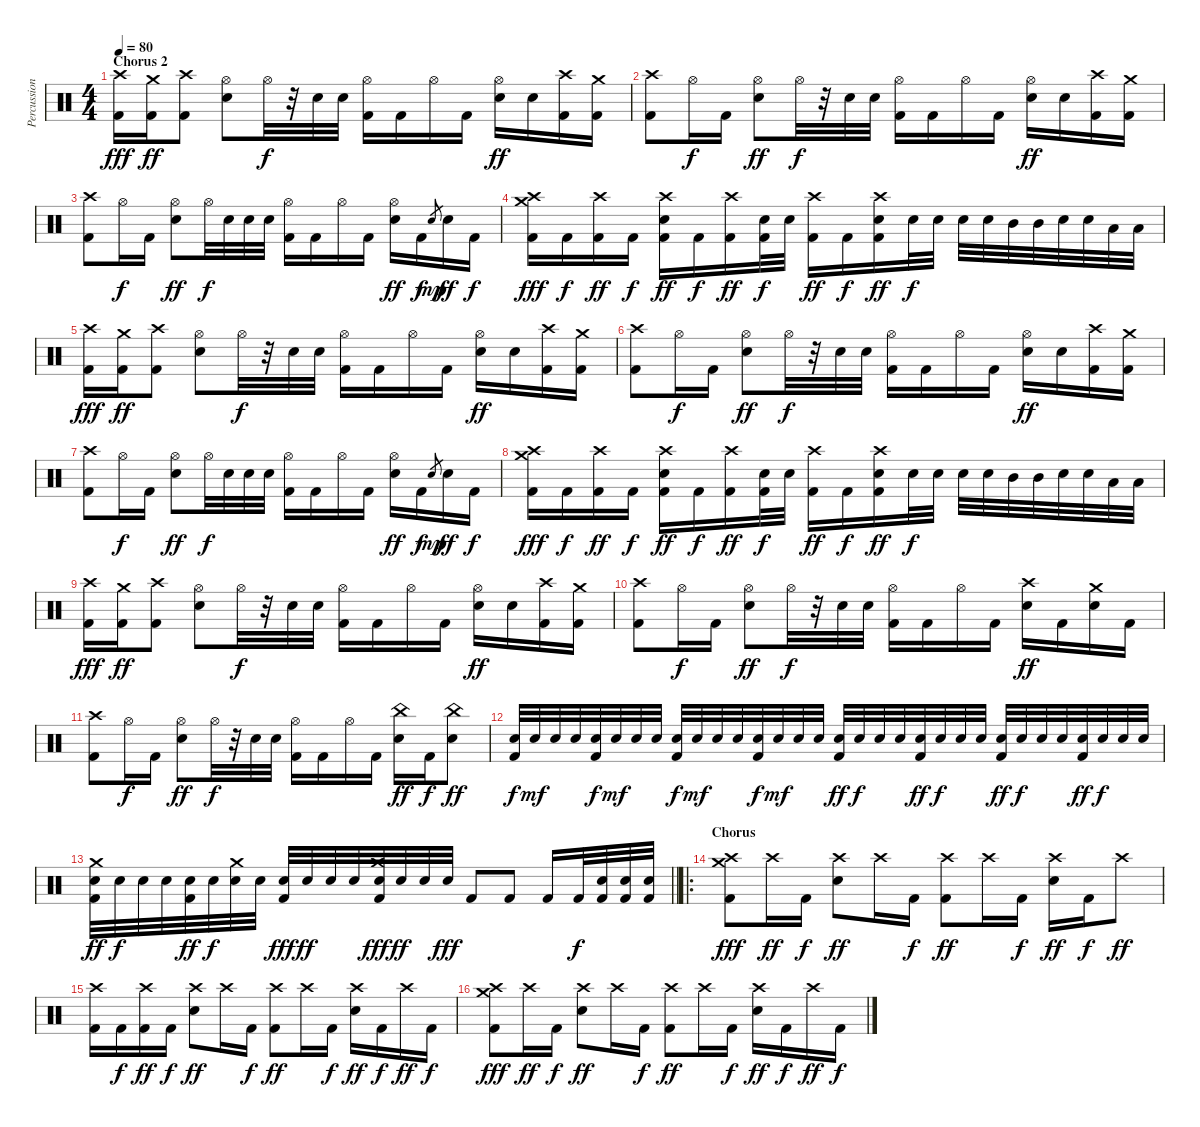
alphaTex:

\track ("Percussion" "Percussion") {instrument percussion}
\staff {score}
\articulation defaults
\ts (4 4)
\section ("" "Chorus 2")
\tempo 80
\clef neutral
\ks c
("Crash high (hit)" "Kick (hit) 2").16{dy fff} ("Crash medium (hit)" "Kick (hit) 2").16{dy ff} ("Crash high (hit)" "Kick (hit) 2").8 ("Hi-Hat (open)" "Electric Snare (hit)").8 "Hi-Hat (open)".32{dy f} r.32 "Electric Snare (hit)".32 "Electric Snare (hit)".32 ("Hi-Hat (open)" "Kick (hit) 2").16 "Kick (hit) 2".16 "Hi-Hat (open)".16 "Kick (hit) 2".16 ("Hi-Hat (open)" "Electric Snare (hit)").16{dy ff} "Electric Snare (hit)".16 ("Crash high (hit)" "Kick (hit) 2").16 ("Crash medium (hit)" "Kick (hit) 2").16 |
("Crash high (hit)" "Kick (hit) 2").8 "Hi-Hat (open)".16{dy f} "Kick (hit) 2".16 ("Hi-Hat (open)" "Electric Snare (hit)").8{dy ff} "Hi-Hat (open)".32{dy f} r.32 "Electric Snare (hit)".32 "Electric Snare (hit)".32 ("Hi-Hat (open)" "Kick (hit) 2").16 "Kick (hit) 2".16 "Hi-Hat (open)".16 "Kick (hit) 2".16 ("Hi-Hat (open)" "Electric Snare (hit)").16{dy ff} "Electric Snare (hit)".16 ("Crash high (hit)" "Kick (hit) 2").16 ("Crash medium (hit)" "Kick (hit) 2").16 |
("Crash high (hit)" "Kick (hit) 2").8 "Hi-Hat (open)".16{dy f} "Kick (hit) 2".16 ("Hi-Hat (open)" "Electric Snare (hit)").8{dy ff} "Hi-Hat (open)".32{dy f} "Electric Snare (hit)".32 "Electric Snare (hit)".32 "Electric Snare (hit)".32 ("Hi-Hat (open)" "Kick (hit) 2").16 "Kick (hit) 2".16 "Hi-Hat (open)".16 "Kick (hit) 2".16 ("Hi-Hat (open)" "Electric Snare (hit)").16{dy ff} "Kick (hit) 2".16{dy f} "Electric Snare (hit)".8{gr dy mp} "Electric Snare (hit)".16{dy ff} "Kick (hit) 2".16{dy f} |
("Crash high (hit)" "Crash medium (hit)" "Kick (hit) 2").16{dy fff} "Kick (hit) 2".16{dy f} ("Crash high (hit)" "Kick (hit) 2").16{dy ff} "Kick (hit) 2".16{dy f} ("Crash high (hit)" "Electric Snare (hit)" "Kick (hit) 2").16{dy ff} "Kick (hit) 2".16{dy f} ("Crash high (hit)" "Kick (hit) 2").16{dy ff} ("Electric Snare (hit)" "Kick (hit) 2").32{dy f} "Electric Snare (hit)".32 ("Crash high (hit)" "Kick (hit) 2").16{dy ff} "Kick (hit) 2".16{dy f} ("Crash high (hit)" "Electric Snare (hit)" "Kick (hit) 2").16{dy ff} "Electric Snare (hit)".32{dy f} "Electric Snare (hit)".32 "Electric Snare (hit)".32 "Electric Snare (hit)".32 "Mid Tom (hit)".32 "Mid Tom (hit)".32 "Electric Snare (hit)".32 "Electric Snare (hit)".32 "Low Tom (hit)".32 "Low Tom (hit)".32 |
("Crash high (hit)" "Kick (hit) 2").16{dy fff} ("Crash medium (hit)" "Kick (hit) 2").16{dy ff} ("Crash high (hit)" "Kick (hit) 2").8 ("Hi-Hat (open)" "Electric Snare (hit)").8 "Hi-Hat (open)".32{dy f} r.32 "Electric Snare (hit)".32 "Electric Snare (hit)".32 ("Hi-Hat (open)" "Kick (hit) 2").16 "Kick (hit) 2".16 "Hi-Hat (open)".16 "Kick (hit) 2".16 ("Hi-Hat (open)" "Electric Snare (hit)").16{dy ff} "Electric Snare (hit)".16 ("Crash high (hit)" "Kick (hit) 2").16 ("Crash medium (hit)" "Kick (hit) 2").16 |
("Crash high (hit)" "Kick (hit) 2").8 "Hi-Hat (open)".16{dy f} "Kick (hit) 2".16 ("Hi-Hat (open)" "Electric Snare (hit)").8{dy ff} "Hi-Hat (open)".32{dy f} r.32 "Electric Snare (hit)".32 "Electric Snare (hit)".32 ("Hi-Hat (open)" "Kick (hit) 2").16 "Kick (hit) 2".16 "Hi-Hat (open)".16 "Kick (hit) 2".16 ("Hi-Hat (open)" "Electric Snare (hit)").16{dy ff} "Electric Snare (hit)".16 ("Crash high (hit)" "Kick (hit) 2").16 ("Crash medium (hit)" "Kick (hit) 2").16 |
("Crash high (hit)" "Kick (hit) 2").8 "Hi-Hat (open)".16{dy f} "Kick (hit) 2".16 ("Hi-Hat (open)" "Electric Snare (hit)").8{dy ff} "Hi-Hat (open)".32{dy f} "Electric Snare (hit)".32 "Electric Snare (hit)".32 "Electric Snare (hit)".32 ("Hi-Hat (open)" "Kick (hit) 2").16 "Kick (hit) 2".16 "Hi-Hat (open)".16 "Kick (hit) 2".16 ("Hi-Hat (open)" "Electric Snare (hit)").16{dy ff} "Kick (hit) 2".16{dy f} "Electric Snare (hit)".8{gr dy mp} "Electric Snare (hit)".16{dy ff} "Kick (hit) 2".16{dy f} |
("Crash high (hit)" "Crash medium (hit)" "Kick (hit) 2").16{dy fff} "Kick (hit) 2".16{dy f} ("Crash high (hit)" "Kick (hit) 2").16{dy ff} "Kick (hit) 2".16{dy f} ("Crash high (hit)" "Electric Snare (hit)" "Kick (hit) 2").16{dy ff} "Kick (hit) 2".16{dy f} ("Crash high (hit)" "Kick (hit) 2").16{dy ff} ("Electric Snare (hit)" "Kick (hit) 2").32{dy f} "Electric Snare (hit)".32 ("Crash high (hit)" "Kick (hit) 2").16{dy ff} "Kick (hit) 2".16{dy f} ("Crash high (hit)" "Electric Snare (hit)" "Kick (hit) 2").16{dy ff} "Electric Snare (hit)".32{dy f} "Electric Snare (hit)".32 "Electric Snare (hit)".32 "Electric Snare (hit)".32 "Mid Tom (hit)".32 "Mid Tom (hit)".32 "Electric Snare (hit)".32 "Electric Snare (hit)".32 "Low Tom (hit)".32 "Low Tom (hit)".32 |
("Crash high (hit)" "Kick (hit) 2").16{dy fff} ("Crash medium (hit)" "Kick (hit) 2").16{dy ff} ("Crash high (hit)" "Kick (hit) 2").8 ("Hi-Hat (open)" "Electric Snare (hit)").8 "Hi-Hat (open)".32{dy f} r.32 "Electric Snare (hit)".32 "Electric Snare (hit)".32 ("Hi-Hat (open)" "Kick (hit) 2").16 "Kick (hit) 2".16 "Hi-Hat (open)".16 "Kick (hit) 2".16 ("Hi-Hat (open)" "Electric Snare (hit)").16{dy ff} "Electric Snare (hit)".16 ("Crash high (hit)" "Kick (hit) 2").16 ("Crash medium (hit)" "Kick (hit) 2").16 |
("Crash high (hit)" "Kick (hit) 2").8 "Hi-Hat (open)".16{dy f} "Kick (hit) 2".16 ("Hi-Hat (open)" "Electric Snare (hit)").8{dy ff} "Hi-Hat (open)".32{dy f} r.32 "Electric Snare (hit)".32 "Electric Snare (hit)".32 ("Hi-Hat (open)" "Kick (hit) 2").16 "Kick (hit) 2".16 "Hi-Hat (open)".16 "Kick (hit) 2".16 ("Crash high (hit)" "Electric Snare (hit)").16{dy ff} "Kick (hit) 2".16 ("Crash medium (hit)" "Electric Snare (hit)").16 "Kick (hit) 2".16 |
("Crash high (hit)" "Kick (hit) 2").8 "Hi-Hat (open)".16{dy f} "Kick (hit) 2".16 ("Hi-Hat (open)" "Electric Snare (hit)").8{dy ff} "Hi-Hat (open)".32{dy f} r.32 "Electric Snare (hit)".32 "Electric Snare (hit)".32 ("Hi-Hat (open)" "Kick (hit) 2").16 "Kick (hit) 2".16 "Hi-Hat (open)".16 "Kick (hit) 2".16 ("China (hit)" "Electric Snare (hit)").16{dy ff} "Kick (hit) 2".16{dy f} ("China (hit)" "Electric Snare (hit)").8{dy ff} |
("Electric Snare (hit)" "Kick (hit) 2").32{dy f} "Electric Snare (hit)".32{dy mf} "Electric Snare (hit)".32 "Electric Snare (hit)".32 ("Electric Snare (hit)" "Kick (hit) 2").32{dy f} "Electric Snare (hit)".32{dy mf} "Electric Snare (hit)".32 "Electric Snare (hit)".32 ("Electric Snare (hit)" "Kick (hit) 2").32{dy f} "Electric Snare (hit)".32{dy mf} "Electric Snare (hit)".32 "Electric Snare (hit)".32 ("Electric Snare (hit)" "Kick (hit) 2").32{dy f} "Electric Snare (hit)".32{dy mf} "Electric Snare (hit)".32 "Electric Snare (hit)".32 ("Electric Snare (hit)" "Kick (hit) 2").32{dy ff} "Electric Snare (hit)".32{dy f} "Electric Snare (hit)".32 "Electric Snare (hit)".32 ("Electric Snare (hit)" "Kick (hit) 2").32{dy ff} "Electric Snare (hit)".32{dy f} "Electric Snare (hit)".32 "Electric Snare (hit)".32 ("Electric Snare (hit)" "Kick (hit) 2").32{dy ff} "Electric Snare (hit)".32{dy f} "Electric Snare (hit)".32 "Electric Snare (hit)".32 ("Electric Snare (hit)" "Kick (hit) 2").32{dy ff} "Electric Snare (hit)".32{dy f} "Electric Snare (hit)".32 "Electric Snare (hit)".32 |
\barLineRight lightlight
("Crash medium (hit)" "Electric Snare (hit)" "Kick (hit) 2").32{dy ff} "Electric Snare (hit)".32{dy f} "Electric Snare (hit)".32 "Electric Snare (hit)".32 ("Electric Snare (hit)" "Kick (hit) 2").32{dy ff} "Electric Snare (hit)".32{dy f} ("Crash medium (hit)" "Electric Snare (hit)").32 "Electric Snare (hit)".32 ("Electric Snare (hit)" "Kick (hit) 2").32{dy fff} "Electric Snare (hit)".32{dy ff} "Electric Snare (hit)".32 "Electric Snare (hit)".32 ("Crash medium (hit)" "Electric Snare (hit)" "Kick (hit) 2").32{dy fff} "Electric Snare (hit)".32{dy ff} "Electric Snare (hit)".32 "Electric Snare (hit)".32{dy fff} "Kick (hit) 2".8 "Kick (hit) 2".8 "Kick (hit) 2".16 "Kick (hit) 2".32{dy f} ("Electric Snare (hit)" "Kick (hit) 2").32 ("Electric Snare (hit)" "Kick (hit) 2").32 ("Electric Snare (hit)" "Kick (hit) 2").32 |
\ro
\section ("" "Chorus")
("Crash medium (hit)" "Crash high (hit)" "Kick (hit) 2").8{dy fff} "Crash high (hit)".16{dy ff} "Kick (hit) 2".16{dy f} ("Crash high (hit)" "Electric Snare (hit)").8{dy ff} "Crash high (hit)".16 "Kick (hit) 2".16{dy f} ("Crash high (hit)" "Kick (hit) 2").8{dy ff} "Crash high (hit)".16 "Kick (hit) 2".16{dy f} ("Crash high (hit)" "Electric Snare (hit)").16{dy ff} "Kick (hit) 2".16{dy f} "Crash high (hit)".8{dy ff} |
("Crash high (hit)" "Kick (hit) 2").16 "Kick (hit) 2".16{dy f} ("Crash high (hit)" "Kick (hit) 2").16{dy ff} "Kick (hit) 2".16{dy f} ("Crash high (hit)" "Electric Snare (hit)").8{dy ff} "Crash high (hit)".16 "Kick (hit) 2".16{dy f} ("Crash high (hit)" "Kick (hit) 2").8{dy ff} "Crash high (hit)".16 "Kick (hit) 2".16{dy f} ("Crash high (hit)" "Electric Snare (hit)").16{dy ff} "Kick (hit) 2".16{dy f} "Crash high (hit)".16{dy ff} "Kick (hit) 2".16{dy f} |
("Crash medium (hit)" "Crash high (hit)" "Kick (hit) 2").8{dy fff} "Crash high (hit)".16{dy ff} "Kick (hit) 2".16{dy f} ("Crash high (hit)" "Electric Snare (hit)").8{dy ff} "Crash high (hit)".16 "Kick (hit) 2".16{dy f} ("Crash high (hit)" "Kick (hit) 2").8{dy ff} "Crash high (hit)".16 "Kick (hit) 2".16{dy f} ("Crash high (hit)" "Electric Snare (hit)").16{dy ff} "Kick (hit) 2".16{dy f} "Crash high (hit)".16{dy ff} "Kick (hit) 2".16{dy f}
